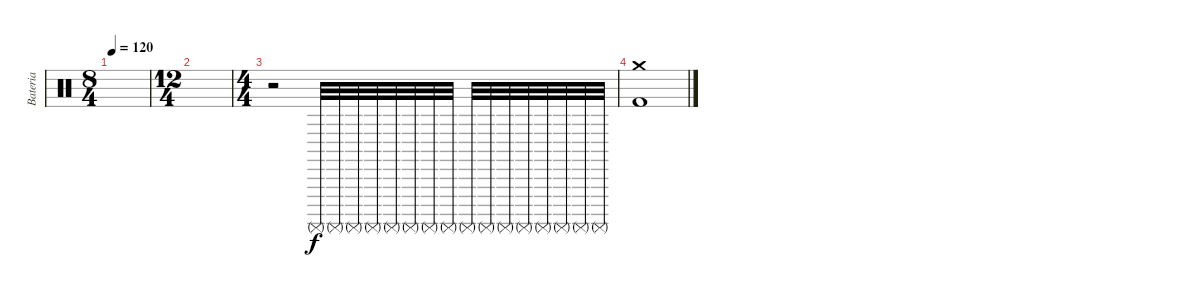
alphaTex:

\track ("Bateria" "Bateria") {instrument percussion}
\staff {score}
\articulation defaults
\ts (8 4)
\tempo 120
\clef neutral
\ks c
|
\ts (12 4)
|
\ts (4 4)
r.2 "Surdo (mute)".32{volume 16} "Surdo (mute)".32 "Surdo (mute)".32 "Surdo (mute)".32 "Surdo (mute)".32 "Surdo (mute)".32 "Surdo (mute)".32 "Surdo (mute)".32 "Surdo (mute)".32 "Surdo (mute)".32 "Surdo (mute)".32 "Surdo (mute)".32 "Surdo (mute)".32 "Surdo (mute)".32 "Surdo (mute)".32 "Surdo (mute)".32 |
("Crash medium (hit)" "Kick (hit) 2").1
